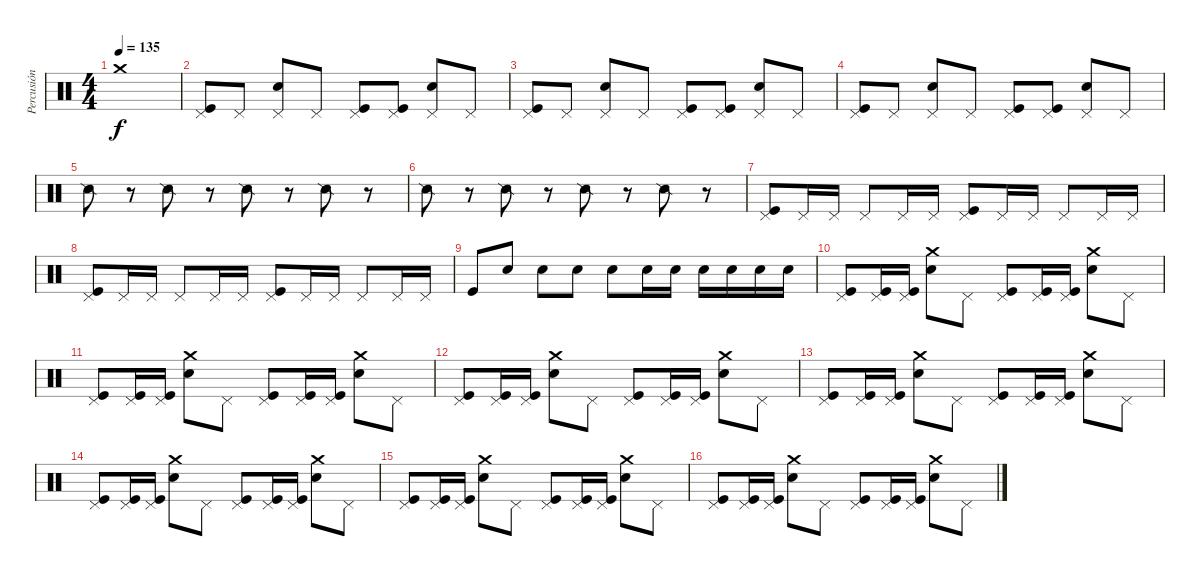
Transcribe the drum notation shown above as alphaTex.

\track ("Percusión" "Percusión") {instrument percussion}
\staff {score}
\articulation defaults
\ts (4 4)
\tempo 135
\clef neutral
\ks c "Crash medium (hit)".1{dy f}
|
("Pedal Hi-Hat (hit)" "Kick (hit)").8 "Pedal Hi-Hat (hit)".8 ("Pedal Hi-Hat (hit)" "Electric Snare (hit)").8 "Pedal Hi-Hat (hit)".8 ("Pedal Hi-Hat (hit)" "Kick (hit)").8 ("Pedal Hi-Hat (hit)" "Kick (hit)").8 ("Pedal Hi-Hat (hit)" "Electric Snare (hit)").8 "Pedal Hi-Hat (hit)".8 |
("Pedal Hi-Hat (hit)" "Kick (hit)").8 "Pedal Hi-Hat (hit)".8 ("Pedal Hi-Hat (hit)" "Electric Snare (hit)").8 "Pedal Hi-Hat (hit)".8 ("Pedal Hi-Hat (hit)" "Kick (hit)").8 ("Pedal Hi-Hat (hit)" "Kick (hit)").8 ("Pedal Hi-Hat (hit)" "Electric Snare (hit)").8 "Pedal Hi-Hat (hit)".8 |
("Pedal Hi-Hat (hit)" "Kick (hit)").8 "Pedal Hi-Hat (hit)".8 ("Pedal Hi-Hat (hit)" "Electric Snare (hit)").8 "Pedal Hi-Hat (hit)".8 ("Pedal Hi-Hat (hit)" "Kick (hit)").8 ("Pedal Hi-Hat (hit)" "Kick (hit)").8 ("Pedal Hi-Hat (hit)" "Electric Snare (hit)").8 "Pedal Hi-Hat (hit)".8 |
"Snare (side stick) 2".8 r.8 "Snare (side stick) 2".8 r.8 "Snare (side stick) 2".8 r.8 "Snare (side stick) 2".8 r.8 |
"Snare (side stick) 2".8 r.8 "Snare (side stick) 2".8 r.8 "Snare (side stick) 2".8 r.8 "Snare (side stick) 2".8 r.8 |
("Pedal Hi-Hat (hit)" "Kick (hit)").8 "Pedal Hi-Hat (hit)".16 "Pedal Hi-Hat (hit)".16 "Pedal Hi-Hat (hit)".8 "Pedal Hi-Hat (hit)".16 "Pedal Hi-Hat (hit)".16 ("Pedal Hi-Hat (hit)" "Kick (hit)").8 "Pedal Hi-Hat (hit)".16 "Pedal Hi-Hat (hit)".16 "Pedal Hi-Hat (hit)".8 "Pedal Hi-Hat (hit)".16 "Pedal Hi-Hat (hit)".16 |
("Pedal Hi-Hat (hit)" "Kick (hit)").8 "Pedal Hi-Hat (hit)".16 "Pedal Hi-Hat (hit)".16 "Pedal Hi-Hat (hit)".8 "Pedal Hi-Hat (hit)".16 "Pedal Hi-Hat (hit)".16 ("Pedal Hi-Hat (hit)" "Kick (hit)").8 "Pedal Hi-Hat (hit)".16 "Pedal Hi-Hat (hit)".16 "Pedal Hi-Hat (hit)".8 "Pedal Hi-Hat (hit)".16 "Pedal Hi-Hat (hit)".16 |
"Kick (hit)".8 "Electric Snare (hit)".8 "Electric Snare (hit)".8 "Electric Snare (hit)".8 "Electric Snare (hit)".8 "Electric Snare (hit)".16 "Electric Snare (hit)".16 "Electric Snare (hit)".16 "Electric Snare (hit)".16 "Electric Snare (hit)".16 "Electric Snare (hit)".16 |
("Pedal Hi-Hat (hit)" "Kick (hit)").8 ("Pedal Hi-Hat (hit)" "Kick (hit)").16 ("Pedal Hi-Hat (hit)" "Kick (hit)").16 ("Crash medium (hit)" "Electric Snare (hit)").8 "Pedal Hi-Hat (hit)".8 ("Pedal Hi-Hat (hit)" "Kick (hit)").8 ("Pedal Hi-Hat (hit)" "Kick (hit)").16 ("Pedal Hi-Hat (hit)" "Kick (hit)").16 ("Crash medium (hit)" "Electric Snare (hit)").8 "Pedal Hi-Hat (hit)".8 |
("Pedal Hi-Hat (hit)" "Kick (hit)").8 ("Pedal Hi-Hat (hit)" "Kick (hit)").16 ("Pedal Hi-Hat (hit)" "Kick (hit)").16 ("Crash medium (hit)" "Electric Snare (hit)").8 "Pedal Hi-Hat (hit)".8 ("Pedal Hi-Hat (hit)" "Kick (hit)").8 ("Pedal Hi-Hat (hit)" "Kick (hit)").16 ("Pedal Hi-Hat (hit)" "Kick (hit)").16 ("Crash medium (hit)" "Electric Snare (hit)").8 "Pedal Hi-Hat (hit)".8 |
("Pedal Hi-Hat (hit)" "Kick (hit)").8 ("Pedal Hi-Hat (hit)" "Kick (hit)").16 ("Pedal Hi-Hat (hit)" "Kick (hit)").16 ("Crash medium (hit)" "Electric Snare (hit)").8 "Pedal Hi-Hat (hit)".8 ("Pedal Hi-Hat (hit)" "Kick (hit)").8 ("Pedal Hi-Hat (hit)" "Kick (hit)").16 ("Pedal Hi-Hat (hit)" "Kick (hit)").16 ("Crash medium (hit)" "Electric Snare (hit)").8 "Pedal Hi-Hat (hit)".8 |
("Pedal Hi-Hat (hit)" "Kick (hit)").8 ("Pedal Hi-Hat (hit)" "Kick (hit)").16 ("Pedal Hi-Hat (hit)" "Kick (hit)").16 ("Crash medium (hit)" "Electric Snare (hit)").8 "Pedal Hi-Hat (hit)".8 ("Pedal Hi-Hat (hit)" "Kick (hit)").8 ("Pedal Hi-Hat (hit)" "Kick (hit)").16 ("Pedal Hi-Hat (hit)" "Kick (hit)").16 ("Crash medium (hit)" "Electric Snare (hit)").8 "Pedal Hi-Hat (hit)".8 |
("Pedal Hi-Hat (hit)" "Kick (hit)").8 ("Pedal Hi-Hat (hit)" "Kick (hit)").16 ("Pedal Hi-Hat (hit)" "Kick (hit)").16 ("Crash medium (hit)" "Electric Snare (hit)").8 "Pedal Hi-Hat (hit)".8 ("Pedal Hi-Hat (hit)" "Kick (hit)").8 ("Pedal Hi-Hat (hit)" "Kick (hit)").16 ("Pedal Hi-Hat (hit)" "Kick (hit)").16 ("Crash medium (hit)" "Electric Snare (hit)").8 "Pedal Hi-Hat (hit)".8 |
("Pedal Hi-Hat (hit)" "Kick (hit)").8 ("Pedal Hi-Hat (hit)" "Kick (hit)").16 ("Pedal Hi-Hat (hit)" "Kick (hit)").16 ("Crash medium (hit)" "Electric Snare (hit)").8 "Pedal Hi-Hat (hit)".8 ("Pedal Hi-Hat (hit)" "Kick (hit)").8 ("Pedal Hi-Hat (hit)" "Kick (hit)").16 ("Pedal Hi-Hat (hit)" "Kick (hit)").16 ("Crash medium (hit)" "Electric Snare (hit)").8 "Pedal Hi-Hat (hit)".8 |
("Pedal Hi-Hat (hit)" "Kick (hit)").8 ("Pedal Hi-Hat (hit)" "Kick (hit)").16 ("Pedal Hi-Hat (hit)" "Kick (hit)").16 ("Crash medium (hit)" "Electric Snare (hit)").8 "Pedal Hi-Hat (hit)".8 ("Pedal Hi-Hat (hit)" "Kick (hit)").8 ("Pedal Hi-Hat (hit)" "Kick (hit)").16 ("Pedal Hi-Hat (hit)" "Kick (hit)").16 ("Crash medium (hit)" "Electric Snare (hit)").8 "Pedal Hi-Hat (hit)".8
